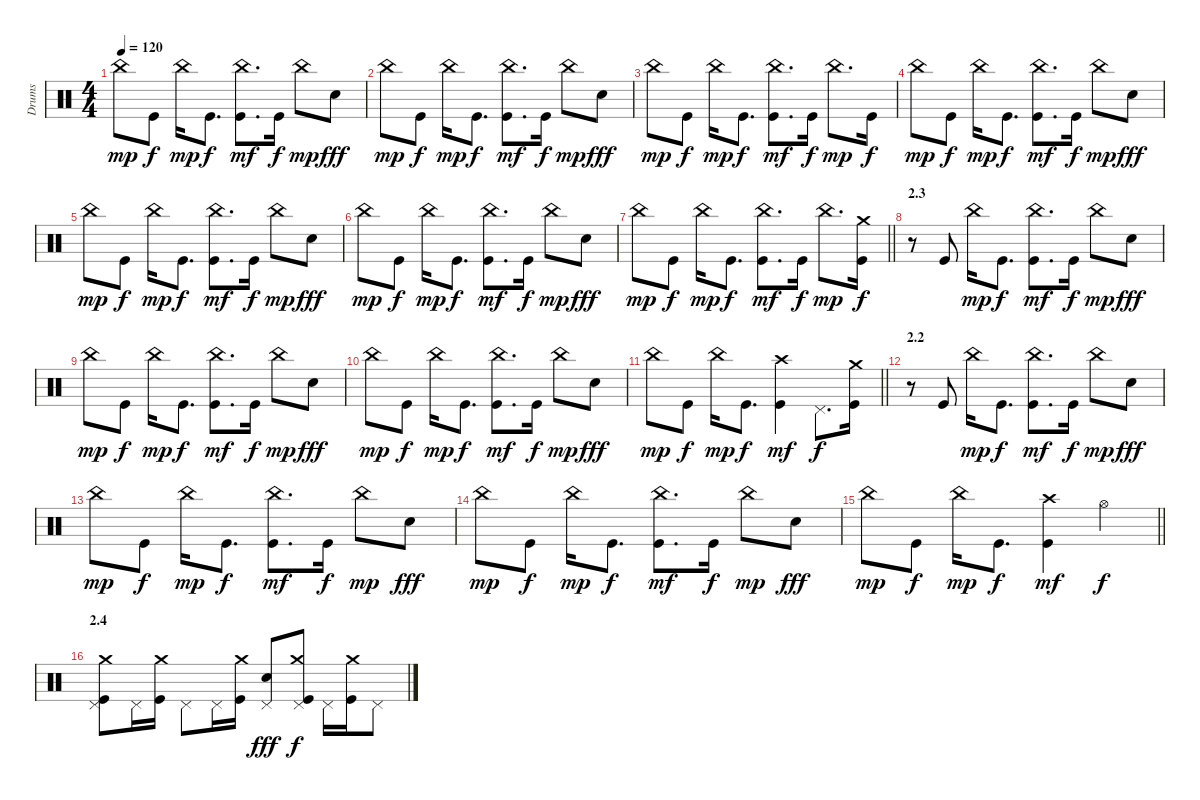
\track ("Drums" "Drums") {instrument percussion}
\staff {score}
\articulation defaults
\ts (4 4)
\tempo 120
\clef neutral
\ks c "China (hit)".8{dy mp} "Kick (hit)".8{dy f} "China (hit)".16{dy mp} "Kick (hit)".8{d dy f}
("China (hit)" "Kick (hit)").8{d dy mf} "Kick (hit)".16{dy f} "China (hit)".8{dy mp} "Snare (hit) 2".8{dy fff} |
"China (hit)".8{dy mp} "Kick (hit)".8{dy f} "China (hit)".16{dy mp} "Kick (hit)".8{d dy f} ("China (hit)" "Kick (hit)").8{d dy mf} "Kick (hit)".16{dy f} "China (hit)".8{dy mp} "Snare (hit) 2".8{dy fff} |
"China (hit)".8{dy mp} "Kick (hit)".8{dy f} "China (hit)".16{dy mp} "Kick (hit)".8{d dy f} ("China (hit)" "Kick (hit)").8{d dy mf} "Kick (hit)".16{dy f} "China (hit)".8{d dy mp} "Kick (hit)".16{dy f} |
"China (hit)".8{dy mp} "Kick (hit)".8{dy f} "China (hit)".16{dy mp} "Kick (hit)".8{d dy f} ("China (hit)" "Kick (hit)").8{d dy mf} "Kick (hit)".16{dy f} "China (hit)".8{dy mp} "Snare (hit) 2".8{dy fff} |
"China (hit)".8{dy mp} "Kick (hit)".8{dy f} "China (hit)".16{dy mp} "Kick (hit)".8{d dy f} ("China (hit)" "Kick (hit)").8{d dy mf} "Kick (hit)".16{dy f} "China (hit)".8{dy mp} "Snare (hit) 2".8{dy fff} |
"China (hit)".8{dy mp} "Kick (hit)".8{dy f} "China (hit)".16{dy mp} "Kick (hit)".8{d dy f} ("China (hit)" "Kick (hit)").8{d dy mf} "Kick (hit)".16{dy f} "China (hit)".8{dy mp} "Snare (hit) 2".8{dy fff} |
\barLineRight lightlight "China (hit)".8{dy mp} "Kick (hit)".8{dy f} "China (hit)".16{dy mp} "Kick (hit)".8{d dy f}
("China (hit)" "Kick (hit)").8{d dy mf} "Kick (hit)".16{dy f} "China (hit)".8{d dy mp} ("Crash medium (hit)" "Kick (hit)").16{dy f} |
\section ("" "2.3")
r.8 "Kick (hit)".8 "China (hit)".16{dy mp} "Kick (hit)".8{d dy f} ("China (hit)" "Kick (hit)").8{d dy mf} "Kick (hit)".16{dy f} "China (hit)".8{dy mp} "Snare (hit) 2".8{dy fff} |
"China (hit)".8{dy mp} "Kick (hit)".8{dy f} "China (hit)".16{dy mp} "Kick (hit)".8{d dy f} ("China (hit)" "Kick (hit)").8{d dy mf} "Kick (hit)".16{dy f} "China (hit)".8{dy mp} "Snare (hit) 2".8{dy fff} |
"China (hit)".8{dy mp} "Kick (hit)".8{dy f} "China (hit)".16{dy mp} "Kick (hit)".8{d dy f} ("China (hit)" "Kick (hit)").8{d dy mf} "Kick (hit)".16{dy f} "China (hit)".8{dy mp} "Snare (hit) 2".8{dy fff} |
\barLineRight lightlight "China (hit)".8{dy mp} "Kick (hit)".8{dy f} "China (hit)".16{dy mp} "Kick (hit)".8{d dy f}
("Crash high (hit)" "Kick (hit)").4{dy mf} "Pedal Hi-Hat (hit)".8{d dy f} ("Crash medium (hit)" "Kick (hit)").16 |
\section ("" "2.2")
r.8 "Kick (hit)".8 "China (hit)".16{dy mp} "Kick (hit)".8{d dy f} ("China (hit)" "Kick (hit)").8{d dy mf} "Kick (hit)".16{dy f} "China (hit)".8{dy mp} "Snare (hit) 2".8{dy fff} |
"China (hit)".8{dy mp} "Kick (hit)".8{dy f} "China (hit)".16{dy mp} "Kick (hit)".8{d dy f} ("China (hit)" "Kick (hit)").8{d dy mf} "Kick (hit)".16{dy f} "China (hit)".8{dy mp} "Snare (hit) 2".8{dy fff} |
"China (hit)".8{dy mp} "Kick (hit)".8{dy f} "China (hit)".16{dy mp} "Kick (hit)".8{d dy f} ("China (hit)" "Kick (hit)").8{d dy mf} "Kick (hit)".16{dy f} "China (hit)".8{dy mp} "Snare (hit) 2".8{dy fff} |
\barLineRight lightlight "China (hit)".8{dy mp} "Kick (hit)".8{dy f} "China (hit)".16{dy mp} "Kick (hit)".8{d dy f}
("Crash high (hit)" "Kick (hit)").4{dy mf} "Hi-Hat (open)".4{dy f} |
\section ("" "2.4")
("Crash medium (hit)" "Pedal Hi-Hat (hit)" "Kick (hit)").8 "Pedal Hi-Hat (hit)".16 ("Crash medium (hit)" "Kick (hit)").16 "Pedal Hi-Hat (hit)".8 "Pedal Hi-Hat (hit)".16 ("Crash medium (hit)" "Kick (hit)").16 ("Pedal Hi-Hat (hit)" "Snare (hit) 2").8{dy fff} ("Crash medium (hit)" "Pedal Hi-Hat (hit)" "Kick (hit)").8{dy f} "Pedal Hi-Hat (hit)".16 ("Crash medium (hit)" "Kick (hit)").16 "Pedal Hi-Hat (hit)".8
